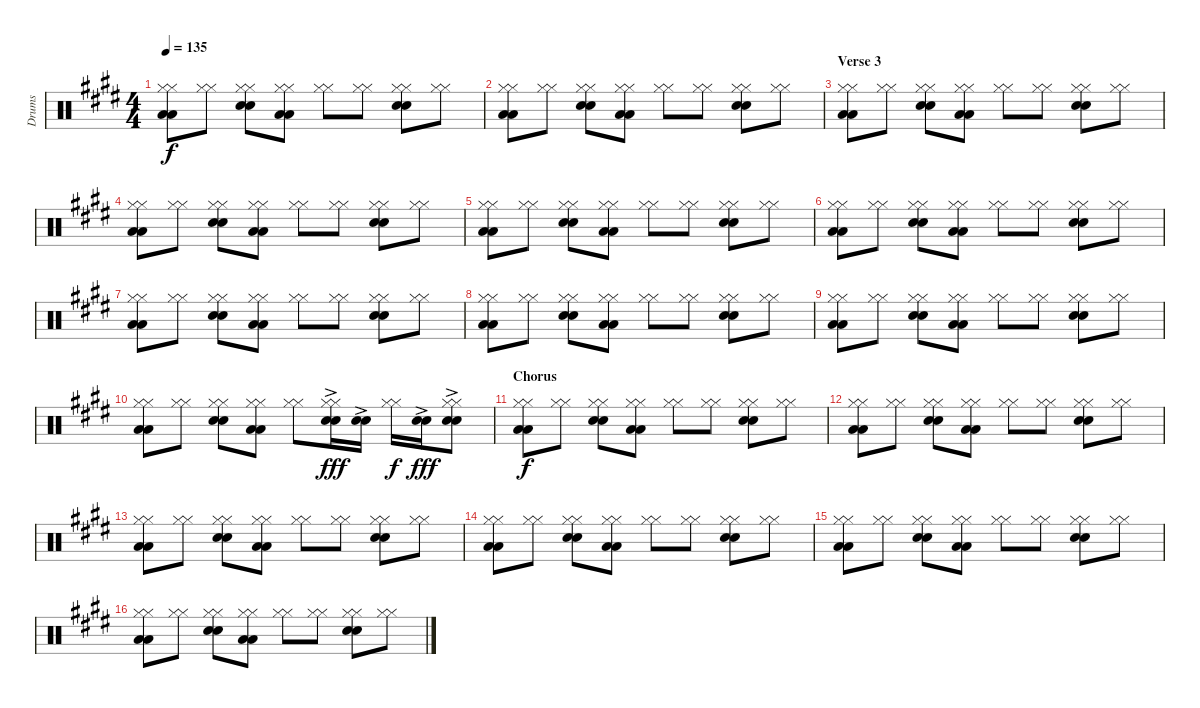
\track ("Drums" "Drums") {instrument percussion}
\staff {score}
\articulation defaults
\ts (4 4)
\tempo 135
\clef neutral
\ks e
("Hi-Hat (closed)" "Hi-Hat (closed)" "Low Floor Tom (hit)" "Low Floor Tom (hit)").8{dy f} ("Hi-Hat (closed)" "Hi-Hat (closed)").8 ("Hi-Hat (closed)" "Hi-Hat (closed)" "Electric Snare (hit)" "Electric Snare (hit)").8 ("Hi-Hat (closed)" "Hi-Hat (closed)" "Low Floor Tom (hit)" "Low Floor Tom (hit)").8 ("Hi-Hat (closed)" "Hi-Hat (closed)").8 ("Hi-Hat (closed)" "Hi-Hat (closed)").8 ("Hi-Hat (closed)" "Hi-Hat (closed)" "Electric Snare (hit)" "Electric Snare (hit)").8 ("Hi-Hat (closed)" "Hi-Hat (closed)").8 |
("Hi-Hat (closed)" "Hi-Hat (closed)" "Low Floor Tom (hit)" "Low Floor Tom (hit)").8 ("Hi-Hat (closed)" "Hi-Hat (closed)").8 ("Hi-Hat (closed)" "Hi-Hat (closed)" "Electric Snare (hit)" "Electric Snare (hit)").8 ("Hi-Hat (closed)" "Hi-Hat (closed)" "Low Floor Tom (hit)" "Low Floor Tom (hit)").8 ("Hi-Hat (closed)" "Hi-Hat (closed)").8 ("Hi-Hat (closed)" "Hi-Hat (closed)").8 ("Hi-Hat (closed)" "Hi-Hat (closed)" "Electric Snare (hit)" "Electric Snare (hit)").8 ("Hi-Hat (closed)" "Hi-Hat (closed)").8 |
\section ("" "Verse 3")
("Hi-Hat (closed)" "Hi-Hat (closed)" "Low Floor Tom (hit)" "Low Floor Tom (hit)").8 ("Hi-Hat (closed)" "Hi-Hat (closed)").8 ("Hi-Hat (closed)" "Hi-Hat (closed)" "Electric Snare (hit)" "Electric Snare (hit)").8 ("Hi-Hat (closed)" "Hi-Hat (closed)" "Low Floor Tom (hit)" "Low Floor Tom (hit)").8 ("Hi-Hat (closed)" "Hi-Hat (closed)").8 ("Hi-Hat (closed)" "Hi-Hat (closed)").8 ("Hi-Hat (closed)" "Hi-Hat (closed)" "Electric Snare (hit)" "Electric Snare (hit)").8 ("Hi-Hat (closed)" "Hi-Hat (closed)").8 |
("Hi-Hat (closed)" "Hi-Hat (closed)" "Low Floor Tom (hit)" "Low Floor Tom (hit)").8 ("Hi-Hat (closed)" "Hi-Hat (closed)").8 ("Hi-Hat (closed)" "Hi-Hat (closed)" "Electric Snare (hit)" "Electric Snare (hit)").8 ("Hi-Hat (closed)" "Hi-Hat (closed)" "Low Floor Tom (hit)" "Low Floor Tom (hit)").8 ("Hi-Hat (closed)" "Hi-Hat (closed)").8 ("Hi-Hat (closed)" "Hi-Hat (closed)").8 ("Hi-Hat (closed)" "Hi-Hat (closed)" "Electric Snare (hit)" "Electric Snare (hit)").8 ("Hi-Hat (closed)" "Hi-Hat (closed)").8 |
("Hi-Hat (closed)" "Hi-Hat (closed)" "Low Floor Tom (hit)" "Low Floor Tom (hit)").8 ("Hi-Hat (closed)" "Hi-Hat (closed)").8 ("Hi-Hat (closed)" "Hi-Hat (closed)" "Electric Snare (hit)" "Electric Snare (hit)").8 ("Hi-Hat (closed)" "Hi-Hat (closed)" "Low Floor Tom (hit)" "Low Floor Tom (hit)").8 ("Hi-Hat (closed)" "Hi-Hat (closed)").8 ("Hi-Hat (closed)" "Hi-Hat (closed)").8 ("Hi-Hat (closed)" "Hi-Hat (closed)" "Electric Snare (hit)" "Electric Snare (hit)").8 ("Hi-Hat (closed)" "Hi-Hat (closed)").8 |
("Hi-Hat (closed)" "Hi-Hat (closed)" "Low Floor Tom (hit)" "Low Floor Tom (hit)").8 ("Hi-Hat (closed)" "Hi-Hat (closed)").8 ("Hi-Hat (closed)" "Hi-Hat (closed)" "Electric Snare (hit)" "Electric Snare (hit)").8 ("Hi-Hat (closed)" "Hi-Hat (closed)" "Low Floor Tom (hit)" "Low Floor Tom (hit)").8 ("Hi-Hat (closed)" "Hi-Hat (closed)").8 ("Hi-Hat (closed)" "Hi-Hat (closed)").8 ("Hi-Hat (closed)" "Hi-Hat (closed)" "Electric Snare (hit)" "Electric Snare (hit)").8 ("Hi-Hat (closed)" "Hi-Hat (closed)").8 |
("Hi-Hat (closed)" "Hi-Hat (closed)" "Low Floor Tom (hit)" "Low Floor Tom (hit)").8 ("Hi-Hat (closed)" "Hi-Hat (closed)").8 ("Hi-Hat (closed)" "Hi-Hat (closed)" "Electric Snare (hit)" "Electric Snare (hit)").8 ("Hi-Hat (closed)" "Hi-Hat (closed)" "Low Floor Tom (hit)" "Low Floor Tom (hit)").8 ("Hi-Hat (closed)" "Hi-Hat (closed)").8 ("Hi-Hat (closed)" "Hi-Hat (closed)").8 ("Hi-Hat (closed)" "Hi-Hat (closed)" "Electric Snare (hit)" "Electric Snare (hit)").8 ("Hi-Hat (closed)" "Hi-Hat (closed)").8 |
("Hi-Hat (closed)" "Hi-Hat (closed)" "Low Floor Tom (hit)" "Low Floor Tom (hit)").8 ("Hi-Hat (closed)" "Hi-Hat (closed)").8 ("Hi-Hat (closed)" "Hi-Hat (closed)" "Electric Snare (hit)" "Electric Snare (hit)").8 ("Hi-Hat (closed)" "Hi-Hat (closed)" "Low Floor Tom (hit)" "Low Floor Tom (hit)").8 ("Hi-Hat (closed)" "Hi-Hat (closed)").8 ("Hi-Hat (closed)" "Hi-Hat (closed)").8 ("Hi-Hat (closed)" "Hi-Hat (closed)" "Electric Snare (hit)" "Electric Snare (hit)").8 ("Hi-Hat (closed)" "Hi-Hat (closed)").8 |
("Hi-Hat (closed)" "Hi-Hat (closed)" "Low Floor Tom (hit)" "Low Floor Tom (hit)").8 ("Hi-Hat (closed)" "Hi-Hat (closed)").8 ("Hi-Hat (closed)" "Hi-Hat (closed)" "Electric Snare (hit)" "Electric Snare (hit)").8 ("Hi-Hat (closed)" "Hi-Hat (closed)" "Low Floor Tom (hit)" "Low Floor Tom (hit)").8 ("Hi-Hat (closed)" "Hi-Hat (closed)").8 ("Hi-Hat (closed)" "Hi-Hat (closed)").8 ("Hi-Hat (closed)" "Hi-Hat (closed)" "Electric Snare (hit)" "Electric Snare (hit)").8 ("Hi-Hat (closed)" "Hi-Hat (closed)").8 |
("Hi-Hat (closed)" "Hi-Hat (closed)" "Low Floor Tom (hit)" "Low Floor Tom (hit)").8 ("Hi-Hat (closed)" "Hi-Hat (closed)").8 ("Hi-Hat (closed)" "Hi-Hat (closed)" "Electric Snare (hit)" "Electric Snare (hit)").8 ("Hi-Hat (closed)" "Hi-Hat (closed)" "Low Floor Tom (hit)" "Low Floor Tom (hit)").8 ("Hi-Hat (closed)" "Hi-Hat (closed)").8 ("Hi-Hat (closed)" "Hi-Hat (closed)" "Electric Snare (hit)"{ac} "Electric Snare (hit)"{ac}).16{dy fff} ("Electric Snare (hit)"{ac} "Electric Snare (hit)"{ac}).16 ("Hi-Hat (closed)" "Hi-Hat (closed)").16{dy f} ("Electric Snare (hit)"{ac} "Electric Snare (hit)"{ac}).16{dy fff} ("Hi-Hat (closed)" "Hi-Hat (closed)" "Electric Snare (hit)"{ac} "Electric Snare (hit)"{ac}).8 |
\section ("" "Chorus")
("Hi-Hat (closed)" "Hi-Hat (closed)" "Low Floor Tom (hit)" "Low Floor Tom (hit)").8{dy f} ("Hi-Hat (closed)" "Hi-Hat (closed)").8 ("Hi-Hat (closed)" "Hi-Hat (closed)" "Electric Snare (hit)" "Electric Snare (hit)").8 ("Hi-Hat (closed)" "Hi-Hat (closed)" "Low Floor Tom (hit)" "Low Floor Tom (hit)").8 ("Hi-Hat (closed)" "Hi-Hat (closed)").8 ("Hi-Hat (closed)" "Hi-Hat (closed)").8 ("Hi-Hat (closed)" "Hi-Hat (closed)" "Electric Snare (hit)" "Electric Snare (hit)").8 ("Hi-Hat (closed)" "Hi-Hat (closed)").8 |
("Hi-Hat (closed)" "Hi-Hat (closed)" "Low Floor Tom (hit)" "Low Floor Tom (hit)").8 ("Hi-Hat (closed)" "Hi-Hat (closed)").8 ("Hi-Hat (closed)" "Hi-Hat (closed)" "Electric Snare (hit)" "Electric Snare (hit)").8 ("Hi-Hat (closed)" "Hi-Hat (closed)" "Low Floor Tom (hit)" "Low Floor Tom (hit)").8 ("Hi-Hat (closed)" "Hi-Hat (closed)").8 ("Hi-Hat (closed)" "Hi-Hat (closed)").8 ("Hi-Hat (closed)" "Hi-Hat (closed)" "Electric Snare (hit)" "Electric Snare (hit)").8 ("Hi-Hat (closed)" "Hi-Hat (closed)").8 |
("Hi-Hat (closed)" "Hi-Hat (closed)" "Low Floor Tom (hit)" "Low Floor Tom (hit)").8 ("Hi-Hat (closed)" "Hi-Hat (closed)").8 ("Hi-Hat (closed)" "Hi-Hat (closed)" "Electric Snare (hit)" "Electric Snare (hit)").8 ("Hi-Hat (closed)" "Hi-Hat (closed)" "Low Floor Tom (hit)" "Low Floor Tom (hit)").8 ("Hi-Hat (closed)" "Hi-Hat (closed)").8 ("Hi-Hat (closed)" "Hi-Hat (closed)").8 ("Hi-Hat (closed)" "Hi-Hat (closed)" "Electric Snare (hit)" "Electric Snare (hit)").8 ("Hi-Hat (closed)" "Hi-Hat (closed)").8 |
("Hi-Hat (closed)" "Hi-Hat (closed)" "Low Floor Tom (hit)" "Low Floor Tom (hit)").8 ("Hi-Hat (closed)" "Hi-Hat (closed)").8 ("Hi-Hat (closed)" "Hi-Hat (closed)" "Electric Snare (hit)" "Electric Snare (hit)").8 ("Hi-Hat (closed)" "Hi-Hat (closed)" "Low Floor Tom (hit)" "Low Floor Tom (hit)").8 ("Hi-Hat (closed)" "Hi-Hat (closed)").8 ("Hi-Hat (closed)" "Hi-Hat (closed)").8 ("Hi-Hat (closed)" "Hi-Hat (closed)" "Electric Snare (hit)" "Electric Snare (hit)").8 ("Hi-Hat (closed)" "Hi-Hat (closed)").8 |
("Hi-Hat (closed)" "Hi-Hat (closed)" "Low Floor Tom (hit)" "Low Floor Tom (hit)").8 ("Hi-Hat (closed)" "Hi-Hat (closed)").8 ("Hi-Hat (closed)" "Hi-Hat (closed)" "Electric Snare (hit)" "Electric Snare (hit)").8 ("Hi-Hat (closed)" "Hi-Hat (closed)" "Low Floor Tom (hit)" "Low Floor Tom (hit)").8 ("Hi-Hat (closed)" "Hi-Hat (closed)").8 ("Hi-Hat (closed)" "Hi-Hat (closed)").8 ("Hi-Hat (closed)" "Hi-Hat (closed)" "Electric Snare (hit)" "Electric Snare (hit)").8 ("Hi-Hat (closed)" "Hi-Hat (closed)").8 |
("Hi-Hat (closed)" "Hi-Hat (closed)" "Low Floor Tom (hit)" "Low Floor Tom (hit)").8 ("Hi-Hat (closed)" "Hi-Hat (closed)").8 ("Hi-Hat (closed)" "Hi-Hat (closed)" "Electric Snare (hit)" "Electric Snare (hit)").8 ("Hi-Hat (closed)" "Hi-Hat (closed)" "Low Floor Tom (hit)" "Low Floor Tom (hit)").8 ("Hi-Hat (closed)" "Hi-Hat (closed)").8 ("Hi-Hat (closed)" "Hi-Hat (closed)").8 ("Hi-Hat (closed)" "Hi-Hat (closed)" "Electric Snare (hit)" "Electric Snare (hit)").8 ("Hi-Hat (closed)" "Hi-Hat (closed)").8
